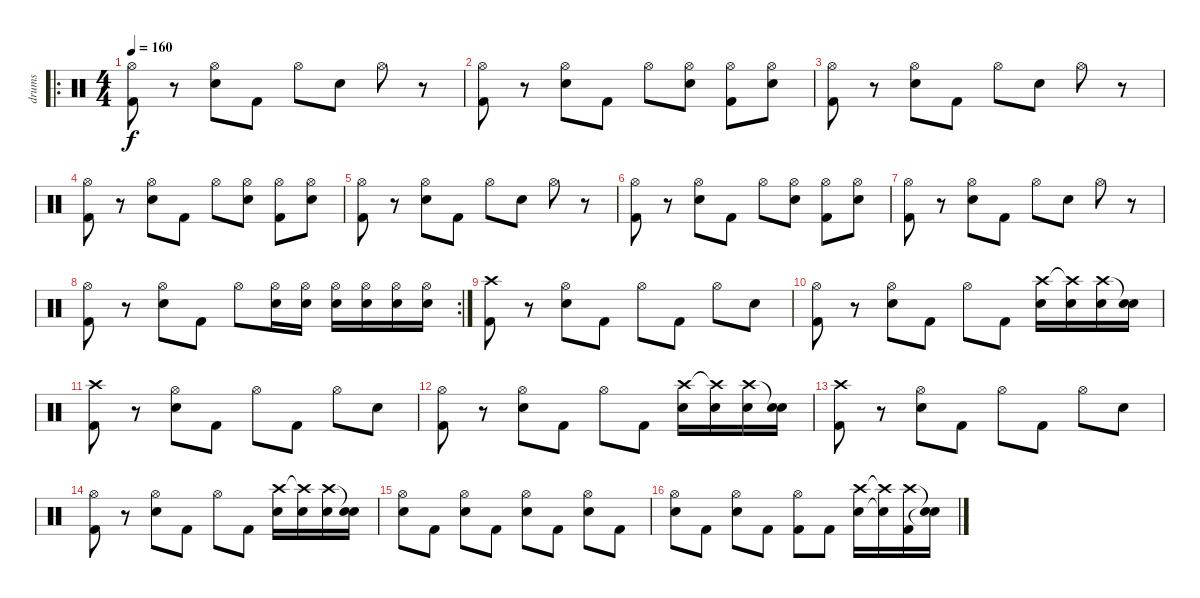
\track ("drums" "drums") {instrument percussion}
\staff {score}
\articulation defaults
\ro
\ts (4 4)
\tempo 160
\clef neutral
\ks c
("Hi-Hat (open)" "Kick (hit) 2").8{dy f} r.8 ("Hi-Hat (open)" "Electric Snare (hit)").8 "Kick (hit) 2".8 "Hi-Hat (open)".8 "Electric Snare (hit)".8 "Hi-Hat (open)".8 r.8 |
("Hi-Hat (open)" "Kick (hit) 2").8 r.8 ("Hi-Hat (open)" "Electric Snare (hit)").8 "Kick (hit) 2".8 "Hi-Hat (open)".8 ("Hi-Hat (open)" "Electric Snare (hit)").8 ("Hi-Hat (open)" "Kick (hit) 2").8 ("Hi-Hat (open)" "Electric Snare (hit)").8 |
("Hi-Hat (open)" "Kick (hit) 2").8 r.8 ("Hi-Hat (open)" "Electric Snare (hit)").8 "Kick (hit) 2".8 "Hi-Hat (open)".8 "Electric Snare (hit)".8 "Hi-Hat (open)".8 r.8 |
("Hi-Hat (open)" "Kick (hit) 2").8 r.8 ("Hi-Hat (open)" "Electric Snare (hit)").8 "Kick (hit) 2".8 "Hi-Hat (open)".8 ("Hi-Hat (open)" "Electric Snare (hit)").8 ("Hi-Hat (open)" "Kick (hit) 2").8 ("Hi-Hat (open)" "Electric Snare (hit)").8 |
("Hi-Hat (open)" "Kick (hit) 2").8 r.8 ("Hi-Hat (open)" "Electric Snare (hit)").8 "Kick (hit) 2".8 "Hi-Hat (open)".8 "Electric Snare (hit)".8 "Hi-Hat (open)".8 r.8 |
("Hi-Hat (open)" "Kick (hit) 2").8 r.8 ("Hi-Hat (open)" "Electric Snare (hit)").8 "Kick (hit) 2".8 "Hi-Hat (open)".8 ("Hi-Hat (open)" "Electric Snare (hit)").8 ("Hi-Hat (open)" "Kick (hit) 2").8 ("Hi-Hat (open)" "Electric Snare (hit)").8 |
("Hi-Hat (open)" "Kick (hit) 2").8 r.8 ("Hi-Hat (open)" "Electric Snare (hit)").8 "Kick (hit) 2".8 "Hi-Hat (open)".8 "Electric Snare (hit)".8 "Hi-Hat (open)".8 r.8 |
\rc 2
("Hi-Hat (open)" "Kick (hit) 2").8 r.8 ("Hi-Hat (open)" "Electric Snare (hit)").8 "Kick (hit) 2".8 "Hi-Hat (open)".8 ("Hi-Hat (open)" "Electric Snare (hit)").16 ("Hi-Hat (open)" "Electric Snare (hit)").16 ("Hi-Hat (open)" "Electric Snare (hit)").16 ("Hi-Hat (open)" "Electric Snare (hit)").16 ("Hi-Hat (open)" "Electric Snare (hit)").16 ("Hi-Hat (open)" "Electric Snare (hit)").16 |
("Crash high (hit)" "Kick (hit) 2").8 r.8 ("Hi-Hat (open)" "Electric Snare (hit)").8 "Kick (hit) 2".8 "Hi-Hat (open)".8 "Kick (hit) 2".8 "Hi-Hat (open)".8 "Electric Snare (hit)".8 |
("Hi-Hat (open)" "Kick (hit) 2").8 r.8 ("Hi-Hat (open)" "Electric Snare (hit)").8 "Kick (hit) 2".8 "Hi-Hat (open)".8 "Kick (hit) 2".8 ("Crash high (hit)" "Electric Snare (hit)").16 ("Crash high (hit)"{t} "Electric Snare (hit)").16 ("Crash high (hit)" "Electric Snare (hit)").16 ("Snare (hit)"{t} "Electric Snare (hit)").16 |
("Crash high (hit)" "Kick (hit) 2").8 r.8 ("Hi-Hat (open)" "Electric Snare (hit)").8 "Kick (hit) 2".8 "Hi-Hat (open)".8 "Kick (hit) 2".8 "Hi-Hat (open)".8 "Electric Snare (hit)".8 |
("Hi-Hat (open)" "Kick (hit) 2").8 r.8 ("Hi-Hat (open)" "Electric Snare (hit)").8 "Kick (hit) 2".8 "Hi-Hat (open)".8 "Kick (hit) 2".8 ("Crash high (hit)" "Electric Snare (hit)").16 ("Crash high (hit)"{t} "Electric Snare (hit)").16 ("Crash high (hit)" "Electric Snare (hit)").16 ("Snare (hit)"{t} "Electric Snare (hit)").16 |
("Crash high (hit)" "Kick (hit) 2").8 r.8 ("Hi-Hat (open)" "Electric Snare (hit)").8 "Kick (hit) 2".8 "Hi-Hat (open)".8 "Kick (hit) 2".8 "Hi-Hat (open)".8 "Electric Snare (hit)".8 |
("Hi-Hat (open)" "Kick (hit) 2").8 r.8 ("Hi-Hat (open)" "Electric Snare (hit)").8 "Kick (hit) 2".8 "Hi-Hat (open)".8 "Kick (hit) 2".8 ("Crash high (hit)" "Electric Snare (hit)").16 ("Crash high (hit)"{t} "Electric Snare (hit)").16 ("Crash high (hit)" "Electric Snare (hit)").16 ("Snare (hit)"{t} "Electric Snare (hit)").16 |
("Hi-Hat (open)" "Electric Snare (hit)").8 "Kick (hit) 2".8 ("Hi-Hat (open)" "Electric Snare (hit)").8 "Kick (hit) 2".8 ("Hi-Hat (open)" "Electric Snare (hit)").8 "Kick (hit) 2".8 ("Hi-Hat (open)" "Electric Snare (hit)").8 "Kick (hit) 2".8 |
("Hi-Hat (open)" "Electric Snare (hit)").8 "Kick (hit) 2".8 ("Hi-Hat (open)" "Electric Snare (hit)").8 "Kick (hit) 2".8 ("Hi-Hat (open)" "Kick (hit) 2").8 "Kick (hit) 2".8 ("Crash high (hit)" "Electric Snare (hit)").16 ("Crash high (hit)"{t} "Electric Snare (hit)"{t}).16 ("Crash high (hit)" "Kick (hit) 2").16 ("Snare (hit)"{t} "Electric Snare (hit)"{t}).16
